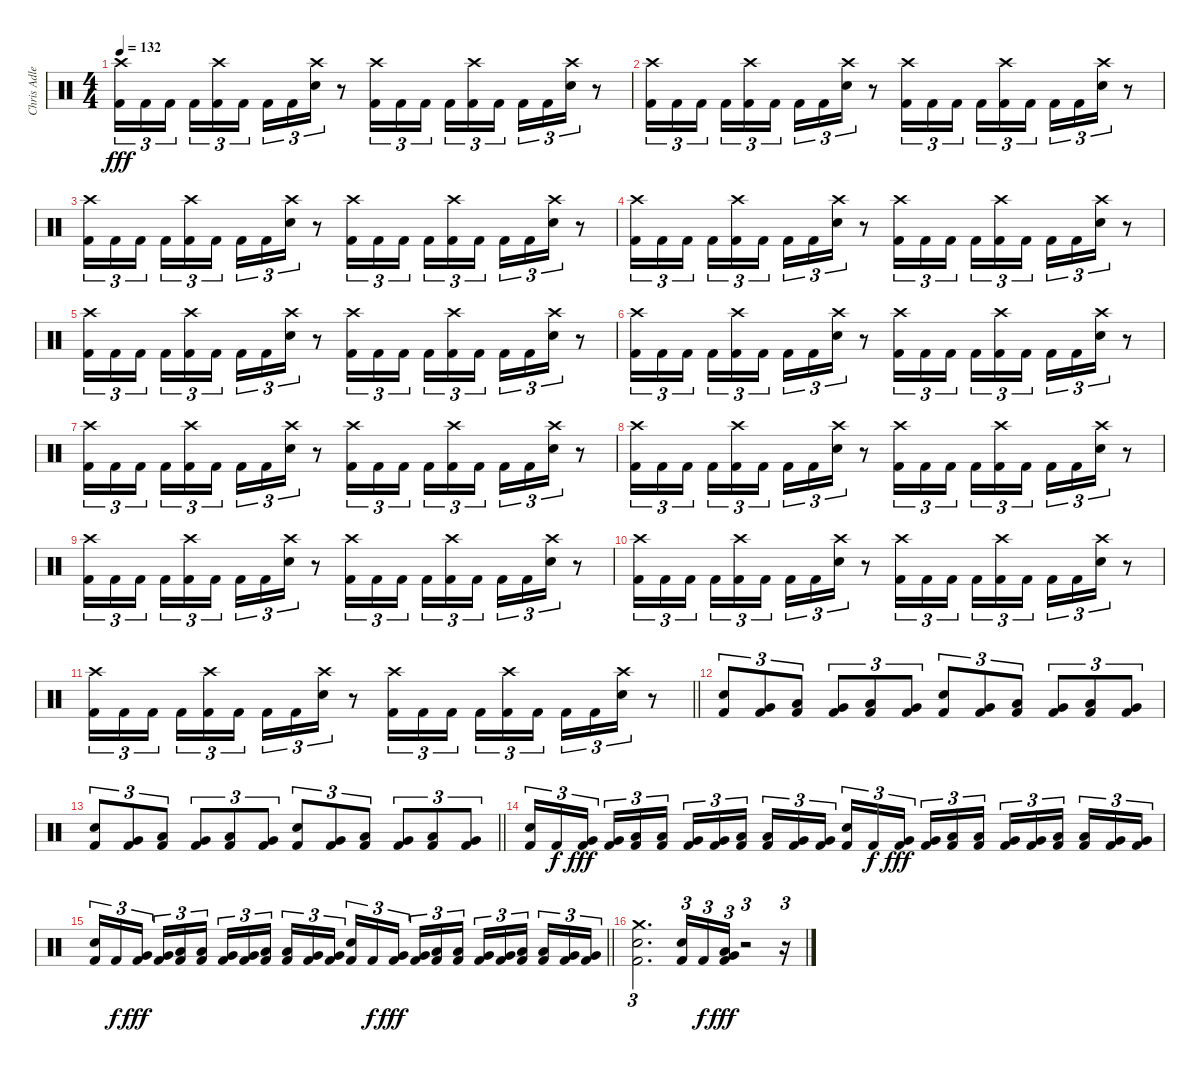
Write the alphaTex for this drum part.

\track ("Chris Adler" "Chris Adle") {instrument percussion}
\staff {score}
\articulation defaults
\ts (4 4)
\tempo 132
\clef neutral
\ks c
("Crash high (hit)" "Kick (hit) 2").16{tu (3 2) dy fff} "Kick (hit) 2".16{tu (3 2)} "Kick (hit) 2".16{tu (3 2) beam splitsecondary} "Kick (hit) 2".16{tu (3 2)} ("Crash high (hit)" "Kick (hit) 2").16{tu (3 2)} "Kick (hit) 2".16{tu (3 2)} "Kick (hit) 2".16{tu (3 2)} "Kick (hit) 2".16{tu (3 2)} ("Crash high (hit)" "Electric Snare (hit)").16{tu (3 2)} r.8 ("Crash high (hit)" "Kick (hit) 2").16{tu (3 2)} "Kick (hit) 2".16{tu (3 2)} "Kick (hit) 2".16{tu (3 2) beam splitsecondary} "Kick (hit) 2".16{tu (3 2)} ("Crash high (hit)" "Kick (hit) 2").16{tu (3 2)} "Kick (hit) 2".16{tu (3 2)} "Kick (hit) 2".16{tu (3 2)} "Kick (hit) 2".16{tu (3 2)} ("Crash high (hit)" "Electric Snare (hit)").16{tu (3 2)} r.8 |
("Crash high (hit)" "Kick (hit) 2").16{tu (3 2)} "Kick (hit) 2".16{tu (3 2)} "Kick (hit) 2".16{tu (3 2) beam splitsecondary} "Kick (hit) 2".16{tu (3 2)} ("Crash high (hit)" "Kick (hit) 2").16{tu (3 2)} "Kick (hit) 2".16{tu (3 2)} "Kick (hit) 2".16{tu (3 2)} "Kick (hit) 2".16{tu (3 2)} ("Crash high (hit)" "Electric Snare (hit)").16{tu (3 2)} r.8 ("Crash high (hit)" "Kick (hit) 2").16{tu (3 2)} "Kick (hit) 2".16{tu (3 2)} "Kick (hit) 2".16{tu (3 2) beam splitsecondary} "Kick (hit) 2".16{tu (3 2)} ("Crash high (hit)" "Kick (hit) 2").16{tu (3 2)} "Kick (hit) 2".16{tu (3 2)} "Kick (hit) 2".16{tu (3 2)} "Kick (hit) 2".16{tu (3 2)} ("Crash high (hit)" "Electric Snare (hit)").16{tu (3 2)} r.8 |
("Crash high (hit)" "Kick (hit) 2").16{tu (3 2)} "Kick (hit) 2".16{tu (3 2)} "Kick (hit) 2".16{tu (3 2) beam splitsecondary} "Kick (hit) 2".16{tu (3 2)} ("Crash high (hit)" "Kick (hit) 2").16{tu (3 2)} "Kick (hit) 2".16{tu (3 2)} "Kick (hit) 2".16{tu (3 2)} "Kick (hit) 2".16{tu (3 2)} ("Crash high (hit)" "Electric Snare (hit)").16{tu (3 2)} r.8 ("Crash high (hit)" "Kick (hit) 2").16{tu (3 2)} "Kick (hit) 2".16{tu (3 2)} "Kick (hit) 2".16{tu (3 2) beam splitsecondary} "Kick (hit) 2".16{tu (3 2)} ("Crash high (hit)" "Kick (hit) 2").16{tu (3 2)} "Kick (hit) 2".16{tu (3 2)} "Kick (hit) 2".16{tu (3 2)} "Kick (hit) 2".16{tu (3 2)} ("Crash high (hit)" "Electric Snare (hit)").16{tu (3 2)} r.8 |
("Crash high (hit)" "Kick (hit) 2").16{tu (3 2)} "Kick (hit) 2".16{tu (3 2)} "Kick (hit) 2".16{tu (3 2) beam splitsecondary} "Kick (hit) 2".16{tu (3 2)} ("Crash high (hit)" "Kick (hit) 2").16{tu (3 2)} "Kick (hit) 2".16{tu (3 2)} "Kick (hit) 2".16{tu (3 2)} "Kick (hit) 2".16{tu (3 2)} ("Crash high (hit)" "Electric Snare (hit)").16{tu (3 2)} r.8 ("Crash high (hit)" "Kick (hit) 2").16{tu (3 2)} "Kick (hit) 2".16{tu (3 2)} "Kick (hit) 2".16{tu (3 2) beam splitsecondary} "Kick (hit) 2".16{tu (3 2)} ("Crash high (hit)" "Kick (hit) 2").16{tu (3 2)} "Kick (hit) 2".16{tu (3 2)} "Kick (hit) 2".16{tu (3 2)} "Kick (hit) 2".16{tu (3 2)} ("Crash high (hit)" "Electric Snare (hit)").16{tu (3 2)} r.8 |
("Crash high (hit)" "Kick (hit) 2").16{tu (3 2)} "Kick (hit) 2".16{tu (3 2)} "Kick (hit) 2".16{tu (3 2) beam splitsecondary} "Kick (hit) 2".16{tu (3 2)} ("Crash high (hit)" "Kick (hit) 2").16{tu (3 2)} "Kick (hit) 2".16{tu (3 2)} "Kick (hit) 2".16{tu (3 2)} "Kick (hit) 2".16{tu (3 2)} ("Crash high (hit)" "Electric Snare (hit)").16{tu (3 2)} r.8 ("Crash high (hit)" "Kick (hit) 2").16{tu (3 2)} "Kick (hit) 2".16{tu (3 2)} "Kick (hit) 2".16{tu (3 2) beam splitsecondary} "Kick (hit) 2".16{tu (3 2)} ("Crash high (hit)" "Kick (hit) 2").16{tu (3 2)} "Kick (hit) 2".16{tu (3 2)} "Kick (hit) 2".16{tu (3 2)} "Kick (hit) 2".16{tu (3 2)} ("Crash high (hit)" "Electric Snare (hit)").16{tu (3 2)} r.8 |
("Crash high (hit)" "Kick (hit) 2").16{tu (3 2)} "Kick (hit) 2".16{tu (3 2)} "Kick (hit) 2".16{tu (3 2) beam splitsecondary} "Kick (hit) 2".16{tu (3 2)} ("Crash high (hit)" "Kick (hit) 2").16{tu (3 2)} "Kick (hit) 2".16{tu (3 2)} "Kick (hit) 2".16{tu (3 2)} "Kick (hit) 2".16{tu (3 2)} ("Crash high (hit)" "Electric Snare (hit)").16{tu (3 2)} r.8 ("Crash high (hit)" "Kick (hit) 2").16{tu (3 2)} "Kick (hit) 2".16{tu (3 2)} "Kick (hit) 2".16{tu (3 2) beam splitsecondary} "Kick (hit) 2".16{tu (3 2)} ("Crash high (hit)" "Kick (hit) 2").16{tu (3 2)} "Kick (hit) 2".16{tu (3 2)} "Kick (hit) 2".16{tu (3 2)} "Kick (hit) 2".16{tu (3 2)} ("Crash high (hit)" "Electric Snare (hit)").16{tu (3 2)} r.8 |
("Crash high (hit)" "Kick (hit) 2").16{tu (3 2)} "Kick (hit) 2".16{tu (3 2)} "Kick (hit) 2".16{tu (3 2) beam splitsecondary} "Kick (hit) 2".16{tu (3 2)} ("Crash high (hit)" "Kick (hit) 2").16{tu (3 2)} "Kick (hit) 2".16{tu (3 2)} "Kick (hit) 2".16{tu (3 2)} "Kick (hit) 2".16{tu (3 2)} ("Crash high (hit)" "Electric Snare (hit)").16{tu (3 2)} r.8 ("Crash high (hit)" "Kick (hit) 2").16{tu (3 2)} "Kick (hit) 2".16{tu (3 2)} "Kick (hit) 2".16{tu (3 2) beam splitsecondary} "Kick (hit) 2".16{tu (3 2)} ("Crash high (hit)" "Kick (hit) 2").16{tu (3 2)} "Kick (hit) 2".16{tu (3 2)} "Kick (hit) 2".16{tu (3 2)} "Kick (hit) 2".16{tu (3 2)} ("Crash high (hit)" "Electric Snare (hit)").16{tu (3 2)} r.8 |
("Crash high (hit)" "Kick (hit) 2").16{tu (3 2)} "Kick (hit) 2".16{tu (3 2)} "Kick (hit) 2".16{tu (3 2) beam splitsecondary} "Kick (hit) 2".16{tu (3 2)} ("Crash high (hit)" "Kick (hit) 2").16{tu (3 2)} "Kick (hit) 2".16{tu (3 2)} "Kick (hit) 2".16{tu (3 2)} "Kick (hit) 2".16{tu (3 2)} ("Crash high (hit)" "Electric Snare (hit)").16{tu (3 2)} r.8 ("Crash high (hit)" "Kick (hit) 2").16{tu (3 2)} "Kick (hit) 2".16{tu (3 2)} "Kick (hit) 2".16{tu (3 2) beam splitsecondary} "Kick (hit) 2".16{tu (3 2)} ("Crash high (hit)" "Kick (hit) 2").16{tu (3 2)} "Kick (hit) 2".16{tu (3 2)} "Kick (hit) 2".16{tu (3 2)} "Kick (hit) 2".16{tu (3 2)} ("Crash high (hit)" "Electric Snare (hit)").16{tu (3 2)} r.8 |
("Crash high (hit)" "Kick (hit) 2").16{tu (3 2)} "Kick (hit) 2".16{tu (3 2)} "Kick (hit) 2".16{tu (3 2) beam splitsecondary} "Kick (hit) 2".16{tu (3 2)} ("Crash high (hit)" "Kick (hit) 2").16{tu (3 2)} "Kick (hit) 2".16{tu (3 2)} "Kick (hit) 2".16{tu (3 2)} "Kick (hit) 2".16{tu (3 2)} ("Crash high (hit)" "Electric Snare (hit)").16{tu (3 2)} r.8 ("Crash high (hit)" "Kick (hit) 2").16{tu (3 2)} "Kick (hit) 2".16{tu (3 2)} "Kick (hit) 2".16{tu (3 2) beam splitsecondary} "Kick (hit) 2".16{tu (3 2)} ("Crash high (hit)" "Kick (hit) 2").16{tu (3 2)} "Kick (hit) 2".16{tu (3 2)} "Kick (hit) 2".16{tu (3 2)} "Kick (hit) 2".16{tu (3 2)} ("Crash high (hit)" "Electric Snare (hit)").16{tu (3 2)} r.8 |
("Crash high (hit)" "Kick (hit) 2").16{tu (3 2)} "Kick (hit) 2".16{tu (3 2)} "Kick (hit) 2".16{tu (3 2) beam splitsecondary} "Kick (hit) 2".16{tu (3 2)} ("Crash high (hit)" "Kick (hit) 2").16{tu (3 2)} "Kick (hit) 2".16{tu (3 2)} "Kick (hit) 2".16{tu (3 2)} "Kick (hit) 2".16{tu (3 2)} ("Crash high (hit)" "Electric Snare (hit)").16{tu (3 2)} r.8 ("Crash high (hit)" "Kick (hit) 2").16{tu (3 2)} "Kick (hit) 2".16{tu (3 2)} "Kick (hit) 2".16{tu (3 2) beam splitsecondary} "Kick (hit) 2".16{tu (3 2)} ("Crash high (hit)" "Kick (hit) 2").16{tu (3 2)} "Kick (hit) 2".16{tu (3 2)} "Kick (hit) 2".16{tu (3 2)} "Kick (hit) 2".16{tu (3 2)} ("Crash high (hit)" "Electric Snare (hit)").16{tu (3 2)} r.8 |
\barLineRight lightlight
("Crash high (hit)" "Kick (hit) 2").16{tu (3 2)} "Kick (hit) 2".16{tu (3 2)} "Kick (hit) 2".16{tu (3 2) beam splitsecondary} "Kick (hit) 2".16{tu (3 2)} ("Crash high (hit)" "Kick (hit) 2").16{tu (3 2)} "Kick (hit) 2".16{tu (3 2)} "Kick (hit) 2".16{tu (3 2)} "Kick (hit) 2".16{tu (3 2)} ("Crash high (hit)" "Electric Snare (hit)").16{tu (3 2)} r.8 ("Crash high (hit)" "Kick (hit) 2").16{tu (3 2)} "Kick (hit) 2".16{tu (3 2)} "Kick (hit) 2".16{tu (3 2) beam splitsecondary} "Kick (hit) 2".16{tu (3 2)} ("Crash high (hit)" "Kick (hit) 2").16{tu (3 2)} "Kick (hit) 2".16{tu (3 2)} "Kick (hit) 2".16{tu (3 2)} "Kick (hit) 2".16{tu (3 2)} ("Crash high (hit)" "Electric Snare (hit)").16{tu (3 2)} r.8 |
("Electric Snare (hit)" "Kick (hit) 2").8{tu (3 2)} ("Very Low Tom (hit)" "Kick (hit) 2").8{tu (3 2)} ("Low Floor Tom (hit)" "Kick (hit) 2").8{tu (3 2)} ("Very Low Tom (hit)" "Kick (hit) 2").8{tu (3 2)} ("Low Floor Tom (hit)" "Kick (hit) 2").8{tu (3 2)} ("Very Low Tom (hit)" "Kick (hit) 2").8{tu (3 2)} ("Electric Snare (hit)" "Kick (hit) 2").8{tu (3 2)} ("Very Low Tom (hit)" "Kick (hit) 2").8{tu (3 2)} ("Low Floor Tom (hit)" "Kick (hit) 2").8{tu (3 2)} ("Very Low Tom (hit)" "Kick (hit) 2").8{tu (3 2)} ("Low Floor Tom (hit)" "Kick (hit) 2").8{tu (3 2)} ("Very Low Tom (hit)" "Kick (hit) 2").8{tu (3 2)} |
\barLineRight lightlight
("Electric Snare (hit)" "Kick (hit) 2").8{tu (3 2)} ("Very Low Tom (hit)" "Kick (hit) 2").8{tu (3 2)} ("Low Floor Tom (hit)" "Kick (hit) 2").8{tu (3 2)} ("Very Low Tom (hit)" "Kick (hit) 2").8{tu (3 2)} ("Low Floor Tom (hit)" "Kick (hit) 2").8{tu (3 2)} ("Very Low Tom (hit)" "Kick (hit) 2").8{tu (3 2)} ("Electric Snare (hit)" "Kick (hit) 2").8{tu (3 2)} ("Very Low Tom (hit)" "Kick (hit) 2").8{tu (3 2)} ("Low Floor Tom (hit)" "Kick (hit) 2").8{tu (3 2)} ("Very Low Tom (hit)" "Kick (hit) 2").8{tu (3 2)} ("Low Floor Tom (hit)" "Kick (hit) 2").8{tu (3 2)} ("Very Low Tom (hit)" "Kick (hit) 2").8{tu (3 2)} |
("Electric Snare (hit)" "Kick (hit) 2").16{tu (3 2)} "Kick (hit) 2".16{tu (3 2) dy f} ("Very Low Tom (hit)" "Kick (hit) 2").16{tu (3 2) dy fff beam splitsecondary} ("Very Low Tom (hit)" "Kick (hit) 2").16{tu (3 2)} ("Low Floor Tom (hit)" "Kick (hit) 2").16{tu (3 2)} ("Low Floor Tom (hit)" "Kick (hit) 2").16{tu (3 2)} ("Very Low Tom (hit)" "Kick (hit) 2").16{tu (3 2)} ("Very Low Tom (hit)" "Kick (hit) 2").16{tu (3 2)} ("Low Floor Tom (hit)" "Kick (hit) 2").16{tu (3 2) beam splitsecondary} ("Low Floor Tom (hit)" "Kick (hit) 2").16{tu (3 2)} ("Very Low Tom (hit)" "Kick (hit) 2").16{tu (3 2)} ("Very Low Tom (hit)" "Kick (hit) 2").16{tu (3 2)} ("Electric Snare (hit)" "Kick (hit) 2").16{tu (3 2)} "Kick (hit) 2".16{tu (3 2) dy f} ("Very Low Tom (hit)" "Kick (hit) 2").16{tu (3 2) dy fff beam splitsecondary} ("Very Low Tom (hit)" "Kick (hit) 2").16{tu (3 2)} ("Low Floor Tom (hit)" "Kick (hit) 2").16{tu (3 2)} ("Low Floor Tom (hit)" "Kick (hit) 2").16{tu (3 2)} ("Very Low Tom (hit)" "Kick (hit) 2").16{tu (3 2)} ("Very Low Tom (hit)" "Kick (hit) 2").16{tu (3 2)} ("Low Floor Tom (hit)" "Kick (hit) 2").16{tu (3 2) beam splitsecondary} ("Low Floor Tom (hit)" "Kick (hit) 2").16{tu (3 2)} ("Very Low Tom (hit)" "Kick (hit) 2").16{tu (3 2)} ("Very Low Tom (hit)" "Kick (hit) 2").16{tu (3 2)} |
\barLineRight lightlight
("Electric Snare (hit)" "Kick (hit) 2").16{tu (3 2)} "Kick (hit) 2".16{tu (3 2) dy f} ("Very Low Tom (hit)" "Kick (hit) 2").16{tu (3 2) dy fff beam splitsecondary} ("Very Low Tom (hit)" "Kick (hit) 2").16{tu (3 2)} ("Low Floor Tom (hit)" "Kick (hit) 2").16{tu (3 2)} ("Low Floor Tom (hit)" "Kick (hit) 2").16{tu (3 2)} ("Very Low Tom (hit)" "Kick (hit) 2").16{tu (3 2)} ("Very Low Tom (hit)" "Kick (hit) 2").16{tu (3 2)} ("Low Floor Tom (hit)" "Kick (hit) 2").16{tu (3 2) beam splitsecondary} ("Low Floor Tom (hit)" "Kick (hit) 2").16{tu (3 2)} ("Very Low Tom (hit)" "Kick (hit) 2").16{tu (3 2)} ("Very Low Tom (hit)" "Kick (hit) 2").16{tu (3 2)} ("Electric Snare (hit)" "Kick (hit) 2").16{tu (3 2)} "Kick (hit) 2".16{tu (3 2) dy f} ("Very Low Tom (hit)" "Kick (hit) 2").16{tu (3 2) dy fff beam splitsecondary} ("Very Low Tom (hit)" "Kick (hit) 2").16{tu (3 2)} ("Low Floor Tom (hit)" "Kick (hit) 2").16{tu (3 2)} ("Low Floor Tom (hit)" "Kick (hit) 2").16{tu (3 2)} ("Very Low Tom (hit)" "Kick (hit) 2").16{tu (3 2)} ("Very Low Tom (hit)" "Kick (hit) 2").16{tu (3 2)} ("Low Floor Tom (hit)" "Kick (hit) 2").16{tu (3 2) beam splitsecondary} ("Low Floor Tom (hit)" "Kick (hit) 2").16{tu (3 2)} ("Very Low Tom (hit)" "Kick (hit) 2").16{tu (3 2)} ("Very Low Tom (hit)" "Kick (hit) 2").16{tu (3 2)} |
("Crash medium (hit)" "Electric Snare (hit)" "Kick (hit) 2").2{d tu (3 2)} ("Electric Snare (hit)" "Kick (hit) 2").16{tu (3 2)} "Kick (hit) 2".16{tu (3 2) dy f} ("Low Floor Tom (hit)" "Very Low Tom (hit)" "Kick (hit) 2").16{tu (3 2) dy fff} r.2{tu (3 2)} r.16{tu (3 2)}
